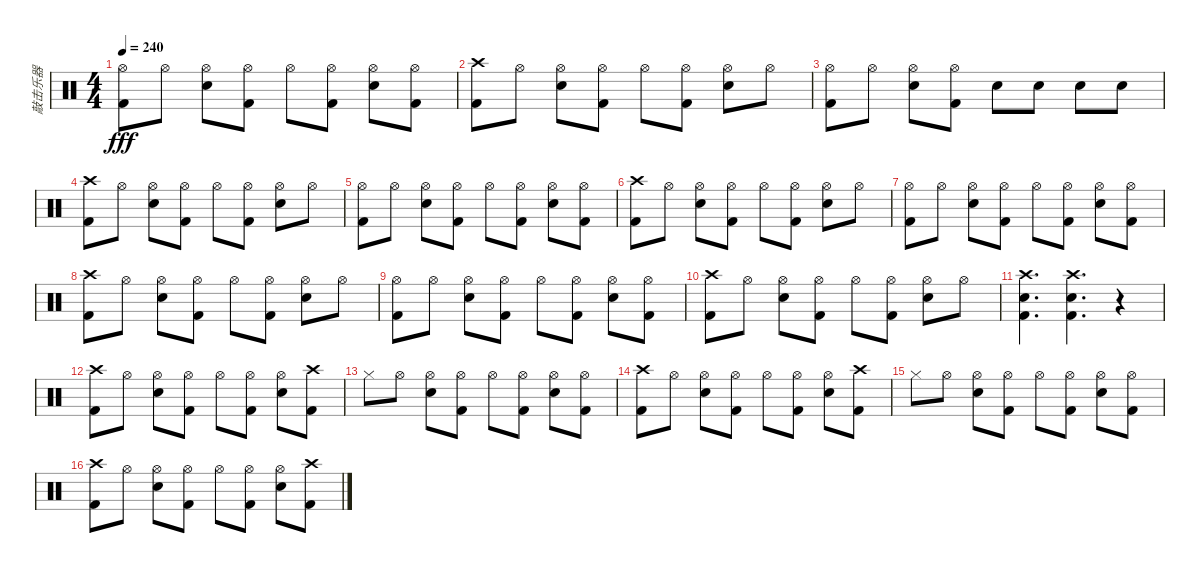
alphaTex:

\track ("敲击乐器" "敲击乐器") {instrument percussion}
\staff {score}
\articulation defaults
\ts (4 4)
\tempo 240
\clef neutral
\ks c
("Hi-Hat (open)" "Kick (hit) 2").8{dy fff} "Hi-Hat (open)".8 ("Hi-Hat (open)" "Snare (hit) 2").8 ("Hi-Hat (open)" "Kick (hit) 2").8 "Hi-Hat (open)".8 ("Hi-Hat (open)" "Kick (hit) 2").8 ("Hi-Hat (open)" "Snare (hit) 2").8 ("Hi-Hat (open)" "Kick (hit) 2").8 |
("Crash high (hit)" "Kick (hit) 2").8 "Hi-Hat (open)".8 ("Hi-Hat (open)" "Snare (hit) 2").8 ("Hi-Hat (open)" "Kick (hit) 2").8 "Hi-Hat (open)".8 ("Hi-Hat (open)" "Kick (hit) 2").8 ("Hi-Hat (open)" "Snare (hit) 2").8 "Hi-Hat (open)".8 |
("Hi-Hat (open)" "Kick (hit) 2").8 "Hi-Hat (open)".8 ("Hi-Hat (open)" "Snare (hit) 2").8 ("Hi-Hat (open)" "Kick (hit) 2").8 "Snare (hit) 2".8 "Snare (hit) 2".8 "Snare (hit) 2".8 "Snare (hit) 2".8 |
("Crash high (hit)" "Kick (hit) 2").8 "Hi-Hat (open)".8 ("Hi-Hat (open)" "Snare (hit) 2").8 ("Hi-Hat (open)" "Kick (hit) 2").8 "Hi-Hat (open)".8 ("Hi-Hat (open)" "Kick (hit) 2").8 ("Hi-Hat (open)" "Snare (hit) 2").8 "Hi-Hat (open)".8 |
("Hi-Hat (open)" "Kick (hit) 2").8 "Hi-Hat (open)".8 ("Hi-Hat (open)" "Snare (hit) 2").8 ("Hi-Hat (open)" "Kick (hit) 2").8 "Hi-Hat (open)".8 ("Hi-Hat (open)" "Kick (hit) 2").8 ("Hi-Hat (open)" "Snare (hit) 2").8 ("Hi-Hat (open)" "Kick (hit) 2").8 |
("Crash high (hit)" "Kick (hit) 2").8 "Hi-Hat (open)".8 ("Hi-Hat (open)" "Snare (hit) 2").8 ("Hi-Hat (open)" "Kick (hit) 2").8 "Hi-Hat (open)".8 ("Hi-Hat (open)" "Kick (hit) 2").8 ("Hi-Hat (open)" "Snare (hit) 2").8 "Hi-Hat (open)".8 |
("Hi-Hat (open)" "Kick (hit) 2").8 "Hi-Hat (open)".8 ("Hi-Hat (open)" "Snare (hit) 2").8 ("Hi-Hat (open)" "Kick (hit) 2").8 "Hi-Hat (open)".8 ("Hi-Hat (open)" "Kick (hit) 2").8 ("Hi-Hat (open)" "Snare (hit) 2").8 ("Hi-Hat (open)" "Kick (hit) 2").8 |
("Crash high (hit)" "Kick (hit) 2").8 "Hi-Hat (open)".8 ("Hi-Hat (open)" "Snare (hit) 2").8 ("Hi-Hat (open)" "Kick (hit) 2").8 "Hi-Hat (open)".8 ("Hi-Hat (open)" "Kick (hit) 2").8 ("Hi-Hat (open)" "Snare (hit) 2").8 "Hi-Hat (open)".8 |
("Hi-Hat (open)" "Kick (hit) 2").8 "Hi-Hat (open)".8 ("Hi-Hat (open)" "Snare (hit) 2").8 ("Hi-Hat (open)" "Kick (hit) 2").8 "Hi-Hat (open)".8 ("Hi-Hat (open)" "Kick (hit) 2").8 ("Hi-Hat (open)" "Snare (hit) 2").8 ("Hi-Hat (open)" "Kick (hit) 2").8 |
("Crash high (hit)" "Kick (hit) 2").8 "Hi-Hat (open)".8 ("Hi-Hat (open)" "Snare (hit) 2").8 ("Hi-Hat (open)" "Kick (hit) 2").8 "Hi-Hat (open)".8 ("Hi-Hat (open)" "Kick (hit) 2").8 ("Hi-Hat (open)" "Snare (hit) 2").8 "Hi-Hat (open)".8 |
("Crash high (hit)" "Snare (hit) 2" "Kick (hit) 2").4{d} ("Crash high (hit)" "Snare (hit) 2" "Kick (hit) 2").4{d} r.4 |
("Crash high (hit)" "Kick (hit) 2").8 "Hi-Hat (open)".8 ("Hi-Hat (open)" "Snare (hit) 2").8 ("Hi-Hat (open)" "Kick (hit) 2").8 "Hi-Hat (open)".8 ("Hi-Hat (open)" "Kick (hit) 2").8 ("Hi-Hat (open)" "Snare (hit) 2").8 ("Crash high (hit)" "Kick (hit) 2").8 |
"Hi-Hat (closed)".8 "Hi-Hat (open)".8 ("Hi-Hat (open)" "Snare (hit) 2").8 ("Hi-Hat (open)" "Kick (hit) 2").8 "Hi-Hat (open)".8 ("Hi-Hat (open)" "Kick (hit) 2").8 ("Hi-Hat (open)" "Snare (hit) 2").8 ("Hi-Hat (open)" "Kick (hit) 2").8 |
("Crash high (hit)" "Kick (hit) 2").8 "Hi-Hat (open)".8 ("Hi-Hat (open)" "Snare (hit) 2").8 ("Hi-Hat (open)" "Kick (hit) 2").8 "Hi-Hat (open)".8 ("Hi-Hat (open)" "Kick (hit) 2").8 ("Hi-Hat (open)" "Snare (hit) 2").8 ("Crash high (hit)" "Kick (hit) 2").8 |
"Hi-Hat (closed)".8 "Hi-Hat (open)".8 ("Hi-Hat (open)" "Snare (hit) 2").8 ("Hi-Hat (open)" "Kick (hit) 2").8 "Hi-Hat (open)".8 ("Hi-Hat (open)" "Kick (hit) 2").8 ("Hi-Hat (open)" "Snare (hit) 2").8 ("Hi-Hat (open)" "Kick (hit) 2").8 |
("Crash high (hit)" "Kick (hit) 2").8 "Hi-Hat (open)".8 ("Hi-Hat (open)" "Snare (hit) 2").8 ("Hi-Hat (open)" "Kick (hit) 2").8 "Hi-Hat (open)".8 ("Hi-Hat (open)" "Kick (hit) 2").8 ("Hi-Hat (open)" "Snare (hit) 2").8 ("Crash high (hit)" "Kick (hit) 2").8
